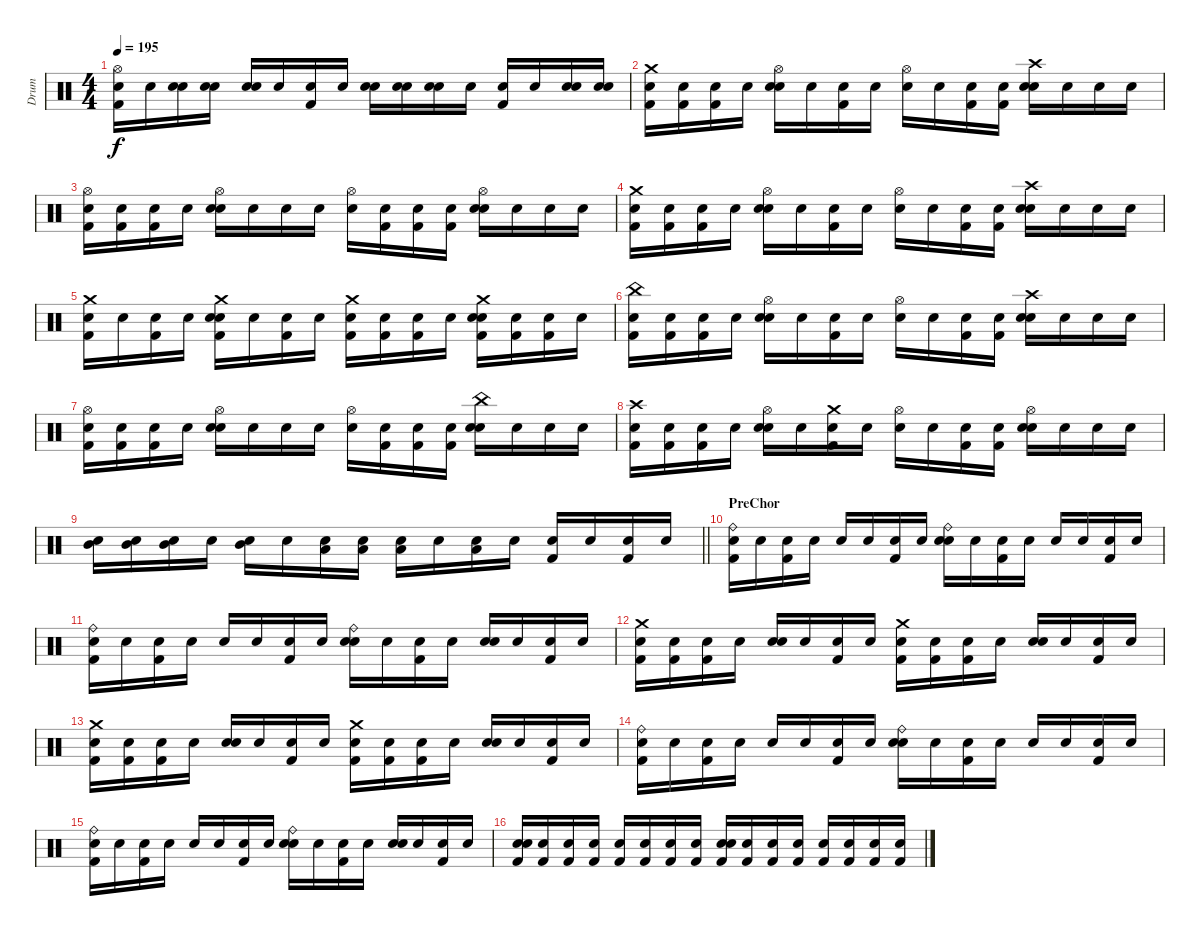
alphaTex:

\track ("Drum" "Drum") {instrument percussion}
\staff {score}
\articulation defaults
\ts (4 4)
\tempo 195
\clef neutral
\ks c
("Hi-Hat (open)" "Snare (hit)" "Kick (hit) 2").16{dy f} "Snare (hit)".16 ("Snare (hit)" "Snare (hit) 2").16 ("Snare (hit)" "Snare (hit) 2").16 ("Snare (hit)" "Snare (hit) 2").16 "Snare (hit)".16 ("Snare (hit)" "Kick (hit) 2").16 "Snare (hit)".16 ("Snare (hit)" "Snare (hit) 2").16 ("Snare (hit)" "Snare (hit) 2").16 ("Snare (hit)" "Snare (hit) 2").16 "Snare (hit)".16 ("Snare (hit)" "Kick (hit) 2").16 "Snare (hit)".16 ("Snare (hit) 2" "Snare (hit)").16 ("Snare (hit) 2" "Snare (hit)").16 |
("Crash medium (hit)" "Snare (hit)" "Kick (hit) 2").16 ("Snare (hit)" "Kick (hit) 2").16 ("Snare (hit)" "Kick (hit) 2").16 "Snare (hit)".16 ("Hi-Hat (open)" "Snare (hit) 2" "Snare (hit)").16 "Snare (hit)".16 ("Snare (hit)" "Kick (hit) 2").16 "Snare (hit)".16 ("Hi-Hat (open)" "Snare (hit)").16 "Snare (hit)".16 ("Snare (hit)" "Kick (hit) 2").16 ("Snare (hit)" "Kick (hit) 2").16 ("Crash high (hit)" "Snare (hit) 2" "Snare (hit)").16 "Snare (hit)".16 "Snare (hit)".16 "Snare (hit)".16 |
("Hi-Hat (open)" "Snare (hit)" "Kick (hit) 2").16 ("Snare (hit)" "Kick (hit) 2").16 ("Snare (hit)" "Kick (hit) 2").16 "Snare (hit)".16 ("Hi-Hat (open)" "Snare (hit) 2" "Snare (hit)").16 "Snare (hit)".16 "Snare (hit)".16 "Snare (hit)".16 ("Hi-Hat (open)" "Snare (hit)").16 ("Snare (hit)" "Kick (hit) 2").16 ("Snare (hit)" "Kick (hit) 2").16 ("Snare (hit)" "Kick (hit) 2").16 ("Hi-Hat (open)" "Snare (hit) 2" "Snare (hit)").16 "Snare (hit)".16 "Snare (hit)".16 "Snare (hit)".16 |
("Crash medium (hit)" "Snare (hit)" "Kick (hit) 2").16 ("Snare (hit)" "Kick (hit) 2").16 ("Snare (hit)" "Kick (hit) 2").16 "Snare (hit)".16 ("Hi-Hat (open)" "Snare (hit) 2" "Snare (hit)").16 "Snare (hit)".16 ("Snare (hit)" "Kick (hit) 2").16 "Snare (hit)".16 ("Hi-Hat (open)" "Snare (hit)").16 "Snare (hit)".16 ("Snare (hit)" "Kick (hit) 2").16 ("Snare (hit)" "Kick (hit) 2").16 ("Crash high (hit)" "Snare (hit) 2" "Snare (hit)").16 "Snare (hit)".16 "Snare (hit)".16 "Snare (hit)".16 |
("Crash medium (hit)" "Snare (hit)" "Kick (hit) 2").16 "Snare (hit)".16 ("Snare (hit)" "Kick (hit) 2").16 "Snare (hit)".16 ("Crash medium (hit)" "Snare (hit) 2" "Snare (hit)" "Kick (hit) 2").16 "Snare (hit)".16 ("Snare (hit)" "Kick (hit) 2").16 "Snare (hit)".16 ("Crash medium (hit)" "Snare (hit)" "Kick (hit) 2").16 ("Snare (hit)" "Kick (hit) 2").16 ("Snare (hit)" "Kick (hit) 2").16 "Snare (hit)".16 ("Crash medium (hit)" "Snare (hit) 2" "Snare (hit)" "Kick (hit) 2").16 ("Snare (hit)" "Kick (hit) 2").16 ("Snare (hit)" "Kick (hit) 2").16 "Snare (hit)".16 |
("China (hit)" "Snare (hit)" "Kick (hit) 2").16 ("Snare (hit)" "Kick (hit) 2").16 ("Snare (hit)" "Kick (hit) 2").16 "Snare (hit)".16 ("Hi-Hat (open)" "Snare (hit) 2" "Snare (hit)").16 "Snare (hit)".16 ("Snare (hit)" "Kick (hit) 2").16 "Snare (hit)".16 ("Hi-Hat (open)" "Snare (hit)").16 "Snare (hit)".16 ("Snare (hit)" "Kick (hit) 2").16 ("Snare (hit)" "Kick (hit) 2").16 ("Crash high (hit)" "Snare (hit) 2" "Snare (hit)").16 "Snare (hit)".16 "Snare (hit)".16 "Snare (hit)".16 |
("Hi-Hat (open)" "Snare (hit)" "Kick (hit) 2").16 ("Snare (hit)" "Kick (hit) 2").16 ("Snare (hit)" "Kick (hit) 2").16 "Snare (hit)".16 ("Hi-Hat (open)" "Snare (hit) 2" "Snare (hit)").16 "Snare (hit)".16 "Snare (hit)".16 "Snare (hit)".16 ("Hi-Hat (open)" "Snare (hit)").16 ("Snare (hit)" "Kick (hit) 2").16 ("Snare (hit)" "Kick (hit) 2").16 ("Snare (hit)" "Kick (hit) 2").16 ("China (hit)" "Snare (hit) 2" "Snare (hit)").16 "Snare (hit)".16 "Snare (hit)".16 "Snare (hit)".16 |
("Crash high (hit)" "Snare (hit)" "Kick (hit) 2").16 ("Snare (hit)" "Kick (hit) 2").16 ("Snare (hit)" "Kick (hit) 2").16 "Snare (hit)".16 ("Hi-Hat (open)" "Snare (hit) 2" "Snare (hit)").16 "Snare (hit)".16 ("Crash medium (hit)" "Snare (hit)" "Kick (hit) 2").16 "Snare (hit)".16 ("Hi-Hat (open)" "Snare (hit)").16 "Snare (hit)".16 ("Snare (hit)" "Kick (hit) 2").16 ("Snare (hit)" "Kick (hit) 2").16 ("Hi-Hat (open)" "Snare (hit) 2" "Snare (hit)").16 "Snare (hit)".16 "Snare (hit)".16 "Snare (hit)".16 |
\barLineRight lightlight
("Mid Tom (hit)" "Snare (hit)").16 ("Mid Tom (hit)" "Snare (hit)").16 ("Mid Tom (hit)" "Snare (hit)").16 "Snare (hit)".16 ("Mid Tom (hit)" "Snare (hit)").16 "Snare (hit)".16 ("Low Tom (hit)" "Snare (hit)").16 ("Low Tom (hit)" "Snare (hit)").16 ("Low Tom (hit)" "Snare (hit)").16 "Snare (hit)".16 ("Low Tom (hit)" "Snare (hit)").16 "Snare (hit)".16 ("Kick (hit) 2" "Snare (hit)").16 "Snare (hit)".16 ("Kick (hit) 2" "Snare (hit)").16 "Snare (hit)".16 |
\section ("" "PreChor")
("Ride (bell)" "Snare (hit)" "Kick (hit) 2").16 "Snare (hit)".16 ("Snare (hit)" "Kick (hit) 2").16 "Snare (hit)".16 "Snare (hit)".16 "Snare (hit)".16 ("Snare (hit)" "Kick (hit) 2").16 "Snare (hit)".16 ("Ride (bell)" "Snare (hit)" "Snare (hit) 2").16 "Snare (hit)".16 ("Snare (hit)" "Kick (hit) 2").16 "Snare (hit)".16 "Snare (hit)".16 "Snare (hit)".16 ("Snare (hit)" "Kick (hit) 2").16 "Snare (hit)".16 |
("Ride (bell)" "Snare (hit)" "Kick (hit) 2").16 "Snare (hit)".16 ("Snare (hit)" "Kick (hit) 2").16 "Snare (hit)".16 "Snare (hit)".16 "Snare (hit)".16 ("Snare (hit)" "Kick (hit) 2").16 "Snare (hit)".16 ("Ride (bell)" "Snare (hit)" "Snare (hit) 2").16 "Snare (hit)".16 ("Snare (hit)" "Kick (hit) 2").16 "Snare (hit)".16 ("Snare (hit)" "Snare (hit) 2").16 "Snare (hit)".16 ("Snare (hit)" "Kick (hit) 2").16 "Snare (hit)".16 |
("Crash medium (hit)" "Snare (hit)" "Kick (hit) 2").16 ("Snare (hit)" "Kick (hit) 2").16 ("Snare (hit)" "Kick (hit) 2").16 "Snare (hit)".16 ("Snare (hit)" "Snare (hit) 2").16 "Snare (hit)".16 ("Snare (hit)" "Kick (hit) 2").16 "Snare (hit)".16 ("Crash medium (hit)" "Snare (hit)" "Kick (hit) 2").16 ("Snare (hit)" "Kick (hit) 2").16 ("Snare (hit)" "Kick (hit) 2").16 "Snare (hit)".16 ("Snare (hit)" "Snare (hit) 2").16 "Snare (hit)".16 ("Snare (hit)" "Kick (hit) 2").16 "Snare (hit)".16 |
("Crash medium (hit)" "Snare (hit)" "Kick (hit) 2").16 ("Snare (hit)" "Kick (hit) 2").16 ("Snare (hit)" "Kick (hit) 2").16 "Snare (hit)".16 ("Snare (hit)" "Snare (hit) 2").16 "Snare (hit)".16 ("Snare (hit)" "Kick (hit) 2").16 "Snare (hit)".16 ("Crash medium (hit)" "Snare (hit)" "Kick (hit) 2").16 ("Snare (hit)" "Kick (hit) 2").16 ("Snare (hit)" "Kick (hit) 2").16 "Snare (hit)".16 ("Snare (hit)" "Snare (hit) 2").16 "Snare (hit)".16 ("Snare (hit)" "Kick (hit) 2").16 "Snare (hit)".16 |
("Ride (bell)" "Snare (hit)" "Kick (hit) 2").16 "Snare (hit)".16 ("Snare (hit)" "Kick (hit) 2").16 "Snare (hit)".16 "Snare (hit)".16 "Snare (hit)".16 ("Snare (hit)" "Kick (hit) 2").16 "Snare (hit)".16 ("Ride (bell)" "Snare (hit)" "Snare (hit) 2").16 "Snare (hit)".16 ("Snare (hit)" "Kick (hit) 2").16 "Snare (hit)".16 "Snare (hit)".16 "Snare (hit)".16 ("Snare (hit)" "Kick (hit) 2").16 "Snare (hit)".16 |
("Ride (bell)" "Snare (hit)" "Kick (hit) 2").16 "Snare (hit)".16 ("Snare (hit)" "Kick (hit) 2").16 "Snare (hit)".16 "Snare (hit)".16 "Snare (hit)".16 ("Snare (hit)" "Kick (hit) 2").16 "Snare (hit)".16 ("Ride (bell)" "Snare (hit)" "Snare (hit) 2").16 "Snare (hit)".16 ("Snare (hit)" "Kick (hit) 2").16 "Snare (hit)".16 ("Snare (hit)" "Snare (hit) 2").16 "Snare (hit)".16 ("Snare (hit)" "Kick (hit) 2").16 "Snare (hit)".16 |
("Snare (hit) 2" "Snare (hit)" "Kick (hit) 2").16 ("Snare (hit)" "Kick (hit) 2").16 ("Snare (hit)" "Kick (hit) 2").16 ("Snare (hit)" "Kick (hit) 2").16 ("Snare (hit)" "Kick (hit) 2").16 ("Snare (hit)" "Kick (hit) 2").16 ("Snare (hit)" "Kick (hit) 2").16 ("Snare (hit)" "Kick (hit) 2").16 ("Snare (hit) 2" "Snare (hit)" "Kick (hit) 2").16 ("Snare (hit)" "Kick (hit) 2").16 ("Snare (hit)" "Kick (hit) 2").16 ("Snare (hit)" "Kick (hit) 2").16 ("Snare (hit)" "Kick (hit) 2").16 ("Snare (hit)" "Kick (hit) 2").16 ("Snare (hit)" "Kick (hit) 2").16 ("Snare (hit)" "Kick (hit) 2").16
